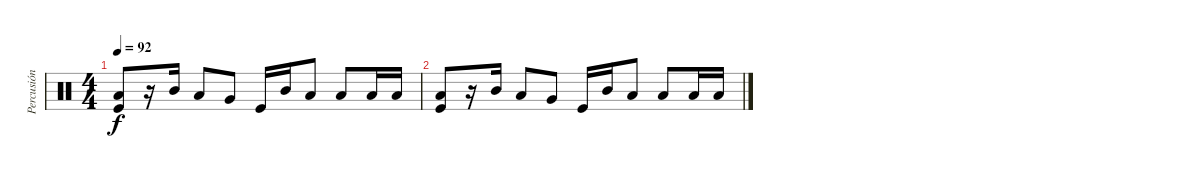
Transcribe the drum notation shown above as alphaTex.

\track ("Percusión" "Percusión") {instrument percussion}
\staff {score}
\articulation defaults
\ts (4 4)
\tempo 92
\clef neutral
\ks c
("Low Tom (hit)" "Kick (hit)").8{dy f} r.16 "Mid Tom (hit)".16 "Low Tom (hit)".8 "Very Low Tom (hit)".8 "Kick (hit)".16 "Mid Tom (hit)".16 "Low Tom (hit)".8 "Low Floor Tom (hit)".8 "Low Floor Tom (hit)".16 "Low Floor Tom (hit)".16 |
("Low Tom (hit)" "Kick (hit)").8 r.16 "Mid Tom (hit)".16 "Low Tom (hit)".8 "Very Low Tom (hit)".8 "Kick (hit)".16 "Mid Tom (hit)".16 "Low Tom (hit)".8 "Low Floor Tom (hit)".8 "Low Floor Tom (hit)".16 "Low Floor Tom (hit)".16
